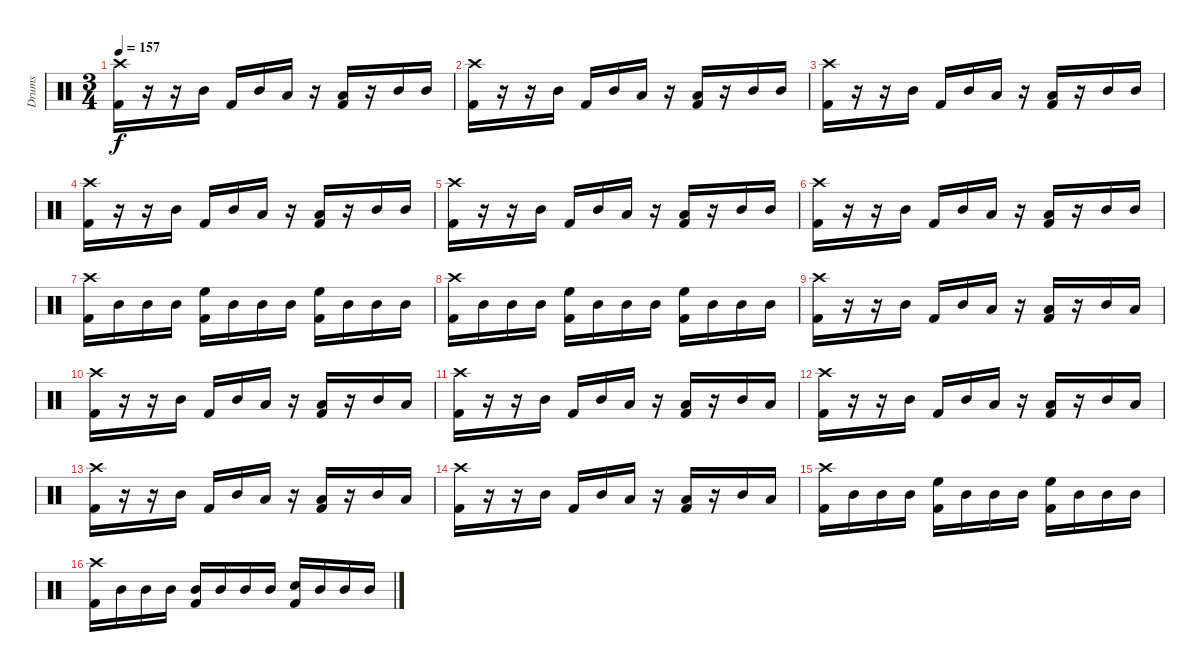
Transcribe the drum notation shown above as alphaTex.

\track ("Drums" "Drums") {instrument percussion}
\staff {score}
\articulation defaults
\ts (3 4)
\tempo 157
\clef neutral
\ks c
("Crash high (hit)" "Kick (hit) 2").16{dy f} r.16 r.16 "Mid Tom (hit)".16 "Kick (hit) 2".16 "Mid Tom (hit)".16 "Low Tom (hit)".16 r.16 ("Low Tom (hit)" "Kick (hit) 2").16 r.16 "Mid Tom (hit)".16 "Mid Tom (hit)".16 |
("Crash high (hit)" "Kick (hit) 2").16 r.16 r.16 "Mid Tom (hit)".16 "Kick (hit) 2".16 "Mid Tom (hit)".16 "Low Tom (hit)".16 r.16 ("Low Tom (hit)" "Kick (hit) 2").16 r.16 "Mid Tom (hit)".16 "Mid Tom (hit)".16 |
("Crash high (hit)" "Kick (hit) 2").16 r.16 r.16 "Mid Tom (hit)".16 "Kick (hit) 2".16 "Mid Tom (hit)".16 "Low Tom (hit)".16 r.16 ("Low Tom (hit)" "Kick (hit) 2").16 r.16 "Mid Tom (hit)".16 "Mid Tom (hit)".16 |
("Crash high (hit)" "Kick (hit) 2").16 r.16 r.16 "Mid Tom (hit)".16 "Kick (hit) 2".16 "Mid Tom (hit)".16 "Low Tom (hit)".16 r.16 ("Low Tom (hit)" "Kick (hit) 2").16 r.16 "Mid Tom (hit)".16 "Mid Tom (hit)".16 |
("Crash high (hit)" "Kick (hit) 2").16 r.16 r.16 "Mid Tom (hit)".16 "Kick (hit) 2".16 "Mid Tom (hit)".16 "Low Tom (hit)".16 r.16 ("Low Tom (hit)" "Kick (hit) 2").16 r.16 "Mid Tom (hit)".16 "Mid Tom (hit)".16 |
("Crash high (hit)" "Kick (hit) 2").16 r.16 r.16 "Mid Tom (hit)".16 "Kick (hit) 2".16 "Mid Tom (hit)".16 "Low Tom (hit)".16 r.16 ("Low Tom (hit)" "Kick (hit) 2").16 r.16 "Mid Tom (hit)".16 "Mid Tom (hit)".16 |
("Crash high (hit)" "Kick (hit) 2").16 "Mid Tom (hit)".16 "Mid Tom (hit)".16 "Mid Tom (hit)".16 ("High Floor Tom (hit)" "Kick (hit) 2").16 "Mid Tom (hit)".16 "Mid Tom (hit)".16 "Mid Tom (hit)".16 ("High Floor Tom (hit)" "Kick (hit) 2").16 "Mid Tom (hit)".16 "Mid Tom (hit)".16 "Mid Tom (hit)".16 |
("Crash high (hit)" "Kick (hit) 2").16 "Mid Tom (hit)".16 "Mid Tom (hit)".16 "Mid Tom (hit)".16 ("High Floor Tom (hit)" "Kick (hit) 2").16 "Mid Tom (hit)".16 "Mid Tom (hit)".16 "Mid Tom (hit)".16 ("High Floor Tom (hit)" "Kick (hit) 2").16 "Mid Tom (hit)".16 "Mid Tom (hit)".16 "Mid Tom (hit)".16 |
("Crash high (hit)" "Kick (hit) 2").16 r.16 r.16 "Mid Tom (hit)".16 "Kick (hit) 2".16 "Mid Tom (hit)".16 "Low Tom (hit)".16 r.16 ("Low Tom (hit)" "Kick (hit) 2").16 r.16 "Mid Tom (hit)".16 "Low Tom (hit)".16 |
("Crash high (hit)" "Kick (hit) 2").16 r.16 r.16 "Mid Tom (hit)".16 "Kick (hit) 2".16 "Mid Tom (hit)".16 "Low Tom (hit)".16 r.16 ("Low Tom (hit)" "Kick (hit) 2").16 r.16 "Mid Tom (hit)".16 "Low Tom (hit)".16 |
("Crash high (hit)" "Kick (hit) 2").16 r.16 r.16 "Mid Tom (hit)".16 "Kick (hit) 2".16 "Mid Tom (hit)".16 "Low Tom (hit)".16 r.16 ("Low Tom (hit)" "Kick (hit) 2").16 r.16 "Mid Tom (hit)".16 "Low Tom (hit)".16 |
("Crash high (hit)" "Kick (hit) 2").16 r.16 r.16 "Mid Tom (hit)".16 "Kick (hit) 2".16 "Mid Tom (hit)".16 "Low Tom (hit)".16 r.16 ("Low Tom (hit)" "Kick (hit) 2").16 r.16 "Mid Tom (hit)".16 "Low Tom (hit)".16 |
("Crash high (hit)" "Kick (hit) 2").16 r.16 r.16 "Mid Tom (hit)".16 "Kick (hit) 2".16 "Mid Tom (hit)".16 "Low Tom (hit)".16 r.16 ("Low Tom (hit)" "Kick (hit) 2").16 r.16 "Mid Tom (hit)".16 "Low Tom (hit)".16 |
("Crash high (hit)" "Kick (hit) 2").16 r.16 r.16 "Mid Tom (hit)".16 "Kick (hit) 2".16 "Mid Tom (hit)".16 "Low Tom (hit)".16 r.16 ("Low Tom (hit)" "Kick (hit) 2").16 r.16 "Mid Tom (hit)".16 "Low Tom (hit)".16 |
("Crash high (hit)" "Kick (hit) 2").16 "Mid Tom (hit)".16 "Mid Tom (hit)".16 "Mid Tom (hit)".16 ("High Floor Tom (hit)" "Kick (hit) 2").16 "Mid Tom (hit)".16 "Mid Tom (hit)".16 "Mid Tom (hit)".16 ("High Floor Tom (hit)" "Kick (hit) 2").16 "Mid Tom (hit)".16 "Mid Tom (hit)".16 "Mid Tom (hit)".16 |
("Crash high (hit)" "Kick (hit) 2").16 "Mid Tom (hit)".16 "Mid Tom (hit)".16 "Mid Tom (hit)".16 ("Mid Tom (hit)" "Kick (hit) 2").16 "Mid Tom (hit)".16 "Mid Tom (hit)".16 "Mid Tom (hit)".16 ("Snare (hit) 2" "Kick (hit) 2").16 "Mid Tom (hit)".16 "Mid Tom (hit)".16 "Mid Tom (hit)".16
